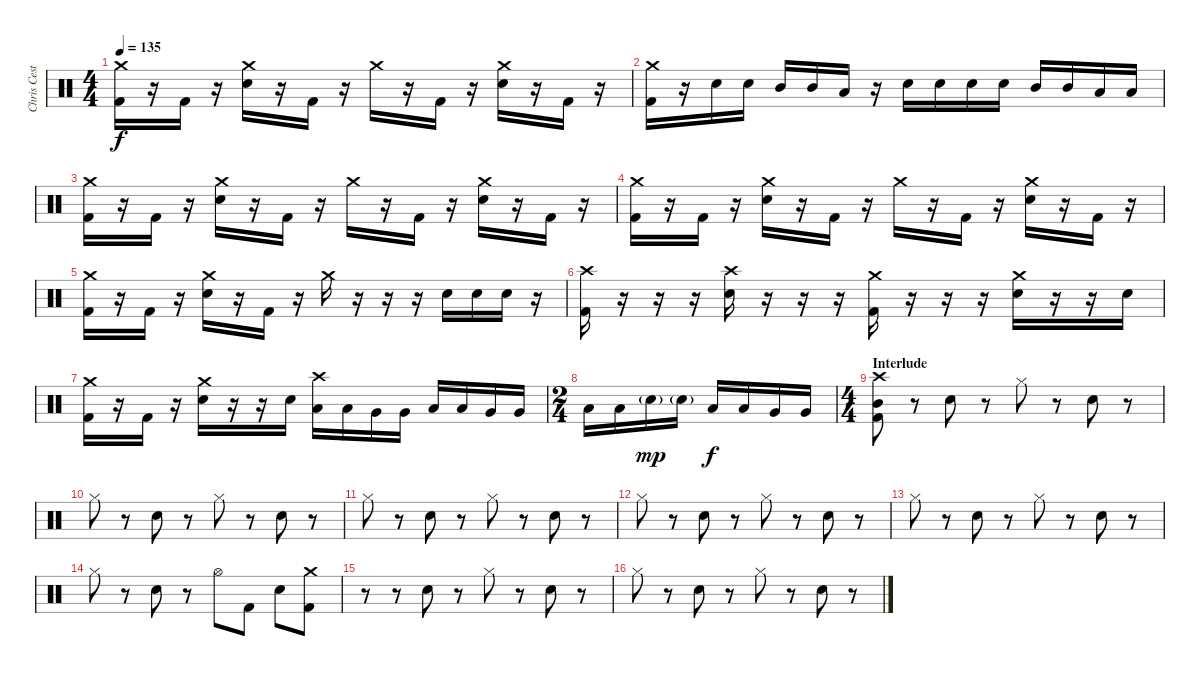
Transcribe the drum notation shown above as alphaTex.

\track ("Chris Cester - Drums" "Chris Cest") {instrument percussion}
\staff {score}
\articulation defaults
\ts (4 4)
\tempo 135
\clef neutral
\ks c
("Crash medium (hit)" "Kick (hit) 2").16{dy f} r.16 "Kick (hit) 2".16 r.16 ("Crash medium (hit)" "Electric Snare (hit)").16 r.16 "Kick (hit) 2".16 r.16 "Crash medium (hit)".16 r.16 "Kick (hit) 2".16 r.16 ("Crash medium (hit)" "Electric Snare (hit)").16 r.16 "Kick (hit) 2".16 r.16 |
("Crash medium (hit)" "Kick (hit) 2").16 r.16 "Electric Snare (hit)".16 "Electric Snare (hit)".16 "Mid Tom (hit)".16 "Mid Tom (hit)".16 "Low Tom (hit)".16 r.16 "Electric Snare (hit)".16 "Electric Snare (hit)".16 "Electric Snare (hit)".16 "Electric Snare (hit)".16 "Mid Tom (hit)".16 "Mid Tom (hit)".16 "Low Tom (hit)".16 "Low Tom (hit)".16 |
("Crash medium (hit)" "Kick (hit) 2").16 r.16 "Kick (hit) 2".16 r.16 ("Crash medium (hit)" "Electric Snare (hit)").16 r.16 "Kick (hit) 2".16 r.16 "Crash medium (hit)".16 r.16 "Kick (hit) 2".16 r.16 ("Crash medium (hit)" "Electric Snare (hit)").16 r.16 "Kick (hit) 2".16 r.16 |
("Crash medium (hit)" "Kick (hit) 2").16 r.16 "Kick (hit) 2".16 r.16 ("Crash medium (hit)" "Electric Snare (hit)").16 r.16 "Kick (hit) 2".16 r.16 "Crash medium (hit)".16 r.16 "Kick (hit) 2".16 r.16 ("Crash medium (hit)" "Electric Snare (hit)").16 r.16 "Kick (hit) 2".16 r.16 |
("Crash medium (hit)" "Kick (hit) 2").16 r.16 "Kick (hit) 2".16 r.16 ("Crash medium (hit)" "Electric Snare (hit)").16 r.16 "Kick (hit) 2".16 r.16 "Crash medium (hit)".16 r.16 r.16 r.16 "Electric Snare (hit)".16 "Electric Snare (hit)".16 "Electric Snare (hit)".16 r.16 |
("Crash high (hit)" "Kick (hit) 2").16 r.16 r.16 r.16 ("Crash high (hit)" "Electric Snare (hit)").16 r.16 r.16 r.16 ("Crash medium (hit)" "Kick (hit) 2").16 r.16 r.16 r.16 ("Crash medium (hit)" "Electric Snare (hit)").16 r.16 r.16 "Electric Snare (hit)".16 |
("Crash medium (hit)" "Kick (hit) 2").16 r.16 "Kick (hit) 2".16 r.16 ("Crash medium (hit)" "Electric Snare (hit)").16 r.16 r.16 "Electric Snare (hit)".16 ("Crash high (hit)" "Low Tom (hit)").16 "Low Tom (hit)".16 "Very Low Tom (hit)".16 "Very Low Tom (hit)".16 "Low Tom (hit)".16 "Low Tom (hit)".16 "Very Low Tom (hit)".16 "Very Low Tom (hit)".16 |
\ts (2 4)
"Low Tom (hit)".16 "Low Tom (hit)".16 "Electric Snare (hit)"{g}.16{dy mp} "Electric Snare (hit)"{g}.16 "Low Tom (hit)".16{dy f} "Low Tom (hit)".16 "Very Low Tom (hit)".16 "Very Low Tom (hit)".16 |
\ts (4 4)
\section ("" "Interlude")
("Crash high (hit)" "Mid Tom (hit)" "Kick (hit) 2").8 r.8 "Electric Snare (hit)".8 r.8 "Hi-Hat (closed)".8 r.8 "Electric Snare (hit)".8 r.8 |
"Hi-Hat (closed)".8 r.8 "Electric Snare (hit)".8 r.8 "Hi-Hat (closed)".8 r.8 "Electric Snare (hit)".8 r.8 |
"Hi-Hat (closed)".8 r.8 "Electric Snare (hit)".8 r.8 "Hi-Hat (closed)".8 r.8 "Electric Snare (hit)".8 r.8 |
"Hi-Hat (closed)".8 r.8 "Electric Snare (hit)".8 r.8 "Hi-Hat (closed)".8 r.8 "Electric Snare (hit)".8 r.8 |
"Hi-Hat (closed)".8 r.8 "Electric Snare (hit)".8 r.8 "Hi-Hat (closed)".8 r.8 "Electric Snare (hit)".8 r.8 |
"Hi-Hat (closed)".8 r.8 "Electric Snare (hit)".8 r.8 "Hi-Hat (open)".8 "Kick (hit) 2".8 "Electric Snare (hit)".8 ("Crash medium (hit)" "Kick (hit) 2").8 |
r.8 r.8 "Electric Snare (hit)".8 r.8 "Hi-Hat (closed)".8 r.8 "Electric Snare (hit)".8 r.8 |
"Hi-Hat (closed)".8 r.8 "Electric Snare (hit)".8 r.8 "Hi-Hat (closed)".8 r.8 "Electric Snare (hit)".8 r.8
